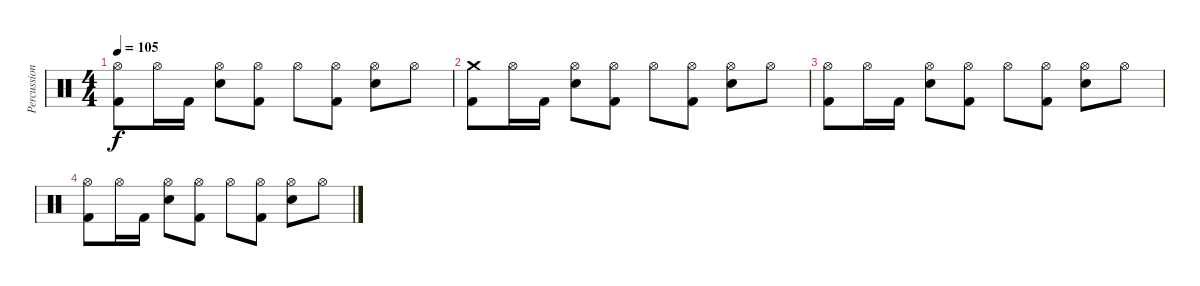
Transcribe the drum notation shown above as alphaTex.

\track ("Percussion" "Percussion") {instrument percussion}
\staff {score}
\articulation defaults
\ts (4 4)
\tempo 105
\clef neutral
\ks c
("Hi-Hat (open)" "Kick (hit) 2").8{dy f} "Hi-Hat (open)".16 "Kick (hit) 2".16 ("Hi-Hat (open)" "Electric Snare (hit)").8 ("Hi-Hat (open)" "Kick (hit) 2").8 "Hi-Hat (open)".8 ("Hi-Hat (open)" "Kick (hit) 2").8 ("Hi-Hat (open)" "Electric Snare (hit)").8 "Hi-Hat (open)".8 |
("Crash medium (hit)" "Kick (hit) 2").8 "Hi-Hat (open)".16 "Kick (hit) 2".16 ("Hi-Hat (open)" "Electric Snare (hit)").8 ("Hi-Hat (open)" "Kick (hit) 2").8 "Hi-Hat (open)".8 ("Hi-Hat (open)" "Kick (hit) 2").8 ("Hi-Hat (open)" "Electric Snare (hit)").8 "Hi-Hat (open)".8 |
("Hi-Hat (open)" "Kick (hit) 2").8 "Hi-Hat (open)".16 "Kick (hit) 2".16 ("Hi-Hat (open)" "Electric Snare (hit)").8 ("Hi-Hat (open)" "Kick (hit) 2").8 "Hi-Hat (open)".8 ("Hi-Hat (open)" "Kick (hit) 2").8 ("Hi-Hat (open)" "Electric Snare (hit)").8 "Hi-Hat (open)".8 |
("Hi-Hat (open)" "Kick (hit) 2").8 "Hi-Hat (open)".16 "Kick (hit) 2".16 ("Hi-Hat (open)" "Electric Snare (hit)").8 ("Hi-Hat (open)" "Kick (hit) 2").8 "Hi-Hat (open)".8 ("Hi-Hat (open)" "Kick (hit) 2").8 ("Hi-Hat (open)" "Electric Snare (hit)").8 "Hi-Hat (open)".8
